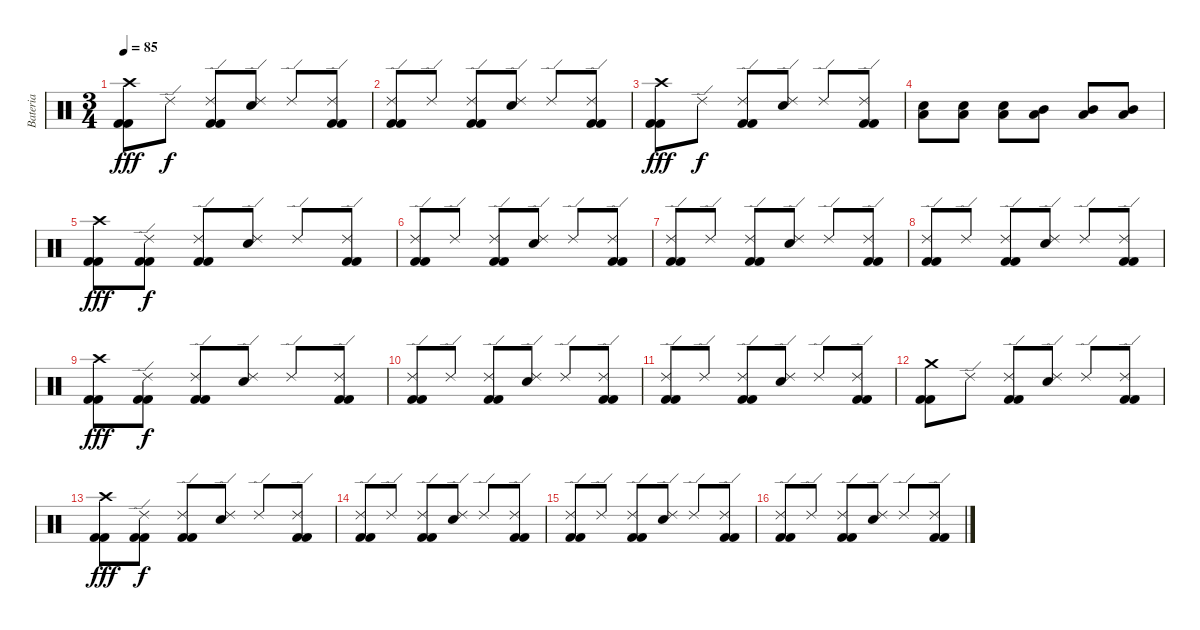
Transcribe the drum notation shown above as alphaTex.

\track ("Bateria" "Bateria") {instrument percussion}
\staff {score}
\articulation defaults
\ts (3 4)
\tempo 85
\clef neutral
\ks c
("Crash high (hit)" "Kick (hit) 2" "Kick (hit) 2").8{dy fff} "Ride (edge) 2".8{dy f} ("Ride (edge) 2" "Kick (hit) 2" "Kick (hit) 2").8 ("Ride (edge) 2" "Electric Snare (hit)").8 "Ride (edge) 2".8 ("Ride (edge) 2" "Kick (hit) 2" "Kick (hit) 2").8 |
("Ride (edge) 2" "Kick (hit) 2" "Kick (hit) 2").8 "Ride (edge) 2".8 ("Ride (edge) 2" "Kick (hit) 2" "Kick (hit) 2").8 ("Ride (edge) 2" "Electric Snare (hit)").8 "Ride (edge) 2".8 ("Ride (edge) 2" "Kick (hit) 2" "Kick (hit) 2").8 |
("Crash high (hit)" "Kick (hit) 2" "Kick (hit) 2").8{dy fff} "Ride (edge) 2".8{dy f} ("Ride (edge) 2" "Kick (hit) 2" "Kick (hit) 2").8 ("Ride (edge) 2" "Electric Snare (hit)").8 "Ride (edge) 2".8 ("Ride (edge) 2" "Kick (hit) 2" "Kick (hit) 2").8 |
("Low Tom (hit)" "Electric Snare (hit)").8 ("Low Tom (hit)" "Electric Snare (hit)").8 ("Low Tom (hit)" "Electric Snare (hit)").8 ("Mid Tom (hit)" "Low Tom (hit)").8 ("Mid Tom (hit)" "Low Tom (hit)").8 ("Mid Tom (hit)" "Low Tom (hit)").8 |
("Crash high (hit)" "Kick (hit) 2" "Kick (hit) 2").8{dy fff} ("Ride (edge) 2" "Kick (hit) 2" "Kick (hit) 2").8{dy f} ("Ride (edge) 2" "Kick (hit) 2" "Kick (hit) 2").8 ("Ride (edge) 2" "Electric Snare (hit)").8 "Ride (edge) 2".8 ("Ride (edge) 2" "Kick (hit) 2" "Kick (hit) 2").8 |
("Ride (edge) 2" "Kick (hit) 2" "Kick (hit) 2").8 "Ride (edge) 2".8 ("Ride (edge) 2" "Kick (hit) 2" "Kick (hit) 2").8 ("Ride (edge) 2" "Electric Snare (hit)").8 "Ride (edge) 2".8 ("Ride (edge) 2" "Kick (hit) 2" "Kick (hit) 2").8 |
("Ride (edge) 2" "Kick (hit) 2" "Kick (hit) 2").8 "Ride (edge) 2".8 ("Ride (edge) 2" "Kick (hit) 2" "Kick (hit) 2").8 ("Ride (edge) 2" "Electric Snare (hit)").8 "Ride (edge) 2".8 ("Ride (edge) 2" "Kick (hit) 2" "Kick (hit) 2").8 |
("Ride (edge) 2" "Kick (hit) 2" "Kick (hit) 2").8 "Ride (edge) 2".8 ("Ride (edge) 2" "Kick (hit) 2" "Kick (hit) 2").8 ("Ride (edge) 2" "Electric Snare (hit)").8 "Ride (edge) 2".8 ("Ride (edge) 2" "Kick (hit) 2" "Kick (hit) 2").8 |
("Crash high (hit)" "Kick (hit) 2" "Kick (hit) 2").8{dy fff} ("Ride (edge) 2" "Kick (hit) 2" "Kick (hit) 2").8{dy f} ("Ride (edge) 2" "Kick (hit) 2" "Kick (hit) 2").8 ("Ride (edge) 2" "Electric Snare (hit)").8 "Ride (edge) 2".8 ("Ride (edge) 2" "Kick (hit) 2" "Kick (hit) 2").8 |
("Ride (edge) 2" "Kick (hit) 2" "Kick (hit) 2").8 "Ride (edge) 2".8 ("Ride (edge) 2" "Kick (hit) 2" "Kick (hit) 2").8 ("Ride (edge) 2" "Electric Snare (hit)").8 "Ride (edge) 2".8 ("Ride (edge) 2" "Kick (hit) 2" "Kick (hit) 2").8 |
("Ride (edge) 2" "Kick (hit) 2" "Kick (hit) 2").8 "Ride (edge) 2".8 ("Ride (edge) 2" "Kick (hit) 2" "Kick (hit) 2").8 ("Ride (edge) 2" "Electric Snare (hit)").8 "Ride (edge) 2".8 ("Ride (edge) 2" "Kick (hit) 2" "Kick (hit) 2").8 |
("Crash medium (hit)" "Kick (hit) 2" "Kick (hit) 2").8 "Ride (edge) 2".8 ("Ride (edge) 2" "Kick (hit) 2" "Kick (hit) 2").8 ("Ride (edge) 2" "Electric Snare (hit)").8 "Ride (edge) 2".8 ("Ride (edge) 2" "Kick (hit) 2" "Kick (hit) 2").8 |
("Crash high (hit)" "Kick (hit) 2" "Kick (hit) 2").8{dy fff} ("Ride (edge) 2" "Kick (hit) 2" "Kick (hit) 2").8{dy f} ("Ride (edge) 2" "Kick (hit) 2" "Kick (hit) 2").8 ("Ride (edge) 2" "Electric Snare (hit)").8 "Ride (edge) 2".8 ("Ride (edge) 2" "Kick (hit) 2" "Kick (hit) 2").8 |
("Ride (edge) 2" "Kick (hit) 2" "Kick (hit) 2").8 "Ride (edge) 2".8 ("Ride (edge) 2" "Kick (hit) 2" "Kick (hit) 2").8 ("Ride (edge) 2" "Electric Snare (hit)").8 "Ride (edge) 2".8 ("Ride (edge) 2" "Kick (hit) 2" "Kick (hit) 2").8 |
("Ride (edge) 2" "Kick (hit) 2" "Kick (hit) 2").8 "Ride (edge) 2".8 ("Ride (edge) 2" "Kick (hit) 2" "Kick (hit) 2").8 ("Ride (edge) 2" "Electric Snare (hit)").8 "Ride (edge) 2".8 ("Ride (edge) 2" "Kick (hit) 2" "Kick (hit) 2").8 |
("Ride (edge) 2" "Kick (hit) 2" "Kick (hit) 2").8 "Ride (edge) 2".8 ("Ride (edge) 2" "Kick (hit) 2" "Kick (hit) 2").8 ("Ride (edge) 2" "Electric Snare (hit)").8 "Ride (edge) 2".8 ("Ride (edge) 2" "Kick (hit) 2" "Kick (hit) 2").8
